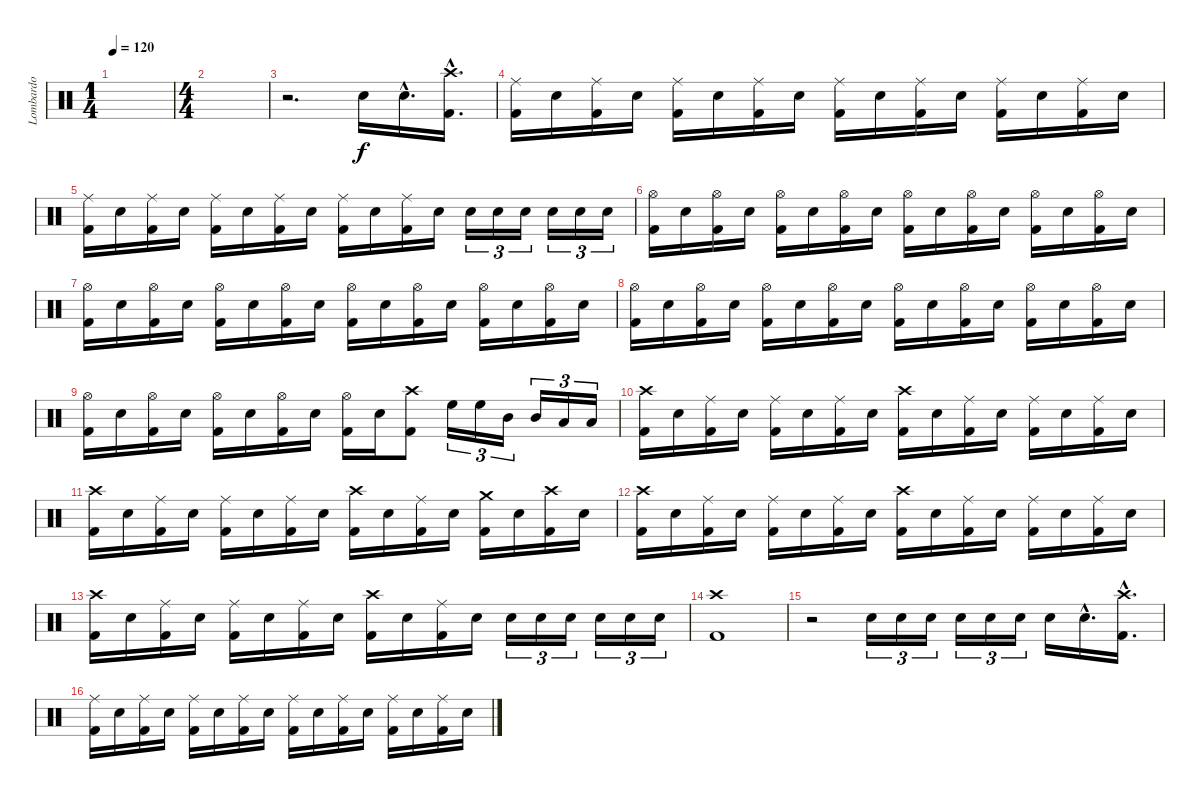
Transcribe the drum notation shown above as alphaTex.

\track ("Lombardo" "Lombardo") {instrument percussion}
\staff {score}
\articulation defaults
\ts (1 4)
\tempo 120
\clef neutral
\ks c
|
\ts (4 4)
|
r.2{d} "Electric Snare (hit)".16 "Electric Snare (hit)"{hac}.16{d} ("Crash high (hit)"{hac} "Kick (hit) 2"{hac}).16{d} |
("Ride (middle)" "Kick (hit) 2").16 "Electric Snare (hit)".16 ("Ride (middle)" "Kick (hit) 2").16 "Electric Snare (hit)".16 ("Ride (middle)" "Kick (hit) 2").16 "Electric Snare (hit)".16 ("Ride (middle)" "Kick (hit) 2").16 "Electric Snare (hit)".16 ("Ride (middle)" "Kick (hit) 2").16 "Electric Snare (hit)".16 ("Ride (middle)" "Kick (hit) 2").16 "Electric Snare (hit)".16 ("Ride (middle)" "Kick (hit) 2").16 "Electric Snare (hit)".16 ("Ride (middle)" "Kick (hit) 2").16 "Electric Snare (hit)".16 |
("Ride (middle)" "Kick (hit) 2").16 "Electric Snare (hit)".16 ("Ride (middle)" "Kick (hit) 2").16 "Electric Snare (hit)".16 ("Ride (middle)" "Kick (hit) 2").16 "Electric Snare (hit)".16 ("Ride (middle)" "Kick (hit) 2").16 "Electric Snare (hit)".16 ("Ride (middle)" "Kick (hit) 2").16 "Electric Snare (hit)".16 ("Ride (middle)" "Kick (hit) 2").16 "Electric Snare (hit)".16 "Electric Snare (hit)".16{tu (3 2)} "Electric Snare (hit)".16{tu (3 2)} "Electric Snare (hit)".16{tu (3 2)} "Electric Snare (hit)".16{tu (3 2)} "Electric Snare (hit)".16{tu (3 2)} "Electric Snare (hit)".16{tu (3 2)} |
("Hi-Hat (open)" "Kick (hit) 2").16 "Electric Snare (hit)".16 ("Hi-Hat (open)" "Kick (hit) 2").16 "Electric Snare (hit)".16 ("Hi-Hat (open)" "Kick (hit) 2").16 "Electric Snare (hit)".16 ("Hi-Hat (open)" "Kick (hit) 2").16 "Electric Snare (hit)".16 ("Hi-Hat (open)" "Kick (hit) 2").16 "Electric Snare (hit)".16 ("Hi-Hat (open)" "Kick (hit) 2").16 "Electric Snare (hit)".16 ("Hi-Hat (open)" "Kick (hit) 2").16 "Electric Snare (hit)".16 ("Hi-Hat (open)" "Kick (hit) 2").16 "Electric Snare (hit)".16 |
("Hi-Hat (open)" "Kick (hit) 2").16 "Electric Snare (hit)".16 ("Hi-Hat (open)" "Kick (hit) 2").16 "Electric Snare (hit)".16 ("Hi-Hat (open)" "Kick (hit) 2").16 "Electric Snare (hit)".16 ("Hi-Hat (open)" "Kick (hit) 2").16 "Electric Snare (hit)".16 ("Hi-Hat (open)" "Kick (hit) 2").16 "Electric Snare (hit)".16 ("Hi-Hat (open)" "Kick (hit) 2").16 "Electric Snare (hit)".16 ("Hi-Hat (open)" "Kick (hit) 2").16 "Electric Snare (hit)".16 ("Hi-Hat (open)" "Kick (hit) 2").16 "Electric Snare (hit)".16 |
("Hi-Hat (open)" "Kick (hit) 2").16 "Electric Snare (hit)".16 ("Hi-Hat (open)" "Kick (hit) 2").16 "Electric Snare (hit)".16 ("Hi-Hat (open)" "Kick (hit) 2").16 "Electric Snare (hit)".16 ("Hi-Hat (open)" "Kick (hit) 2").16 "Electric Snare (hit)".16 ("Hi-Hat (open)" "Kick (hit) 2").16 "Electric Snare (hit)".16 ("Hi-Hat (open)" "Kick (hit) 2").16 "Electric Snare (hit)".16 ("Hi-Hat (open)" "Kick (hit) 2").16 "Electric Snare (hit)".16 ("Hi-Hat (open)" "Kick (hit) 2").16 "Electric Snare (hit)".16 |
("Hi-Hat (open)" "Kick (hit) 2").16 "Electric Snare (hit)".16 ("Hi-Hat (open)" "Kick (hit) 2").16 "Electric Snare (hit)".16 ("Hi-Hat (open)" "Kick (hit) 2").16 "Electric Snare (hit)".16 ("Hi-Hat (open)" "Kick (hit) 2").16 "Electric Snare (hit)".16 ("Hi-Hat (open)" "Kick (hit) 2").16 "Electric Snare (hit)".16 ("Crash high (hit)" "Kick (hit) 2").8 "High Floor Tom (hit)".16{tu (3 2)} "High Floor Tom (hit)".16{tu (3 2)} "Mid Tom (hit)".16{tu (3 2)} "Mid Tom (hit)".16{tu (3 2)} "Low Tom (hit)".16{tu (3 2)} "Low Tom (hit)".16{tu (3 2)} |
("Crash high (hit)" "Kick (hit) 2").16 "Electric Snare (hit)".16 ("Ride (middle)" "Kick (hit) 2").16 "Electric Snare (hit)".16 ("Ride (middle)" "Kick (hit) 2").16 "Electric Snare (hit)".16 ("Ride (middle)" "Kick (hit) 2").16 "Electric Snare (hit)".16 ("Crash high (hit)" "Kick (hit) 2").16 "Electric Snare (hit)".16 ("Ride (middle)" "Kick (hit) 2").16 "Electric Snare (hit)".16 ("Ride (middle)" "Kick (hit) 2").16 "Electric Snare (hit)".16 ("Ride (middle)" "Kick (hit) 2").16 "Electric Snare (hit)".16 |
("Crash high (hit)" "Kick (hit) 2").16 "Electric Snare (hit)".16 ("Ride (middle)" "Kick (hit) 2").16 "Electric Snare (hit)".16 ("Ride (middle)" "Kick (hit) 2").16 "Electric Snare (hit)".16 ("Ride (middle)" "Kick (hit) 2").16 "Electric Snare (hit)".16 ("Crash high (hit)" "Kick (hit) 2").16 "Electric Snare (hit)".16 ("Ride (middle)" "Kick (hit) 2").16 "Electric Snare (hit)".16 ("Crash medium (hit)" "Kick (hit) 2").16 "Electric Snare (hit)".16 ("Crash high (hit)" "Kick (hit) 2").16 "Electric Snare (hit)".16 |
("Crash high (hit)" "Kick (hit) 2").16 "Electric Snare (hit)".16 ("Ride (middle)" "Kick (hit) 2").16 "Electric Snare (hit)".16 ("Ride (middle)" "Kick (hit) 2").16 "Electric Snare (hit)".16 ("Ride (middle)" "Kick (hit) 2").16 "Electric Snare (hit)".16 ("Crash high (hit)" "Kick (hit) 2").16 "Electric Snare (hit)".16 ("Ride (middle)" "Kick (hit) 2").16 "Electric Snare (hit)".16 ("Ride (middle)" "Kick (hit) 2").16 "Electric Snare (hit)".16 ("Ride (middle)" "Kick (hit) 2").16 "Electric Snare (hit)".16 |
("Crash high (hit)" "Kick (hit) 2").16 "Electric Snare (hit)".16 ("Ride (middle)" "Kick (hit) 2").16 "Electric Snare (hit)".16 ("Ride (middle)" "Kick (hit) 2").16 "Electric Snare (hit)".16 ("Ride (middle)" "Kick (hit) 2").16 "Electric Snare (hit)".16 ("Crash high (hit)" "Kick (hit) 2").16 "Electric Snare (hit)".16 ("Ride (middle)" "Kick (hit) 2").16 "Electric Snare (hit)".16 "Electric Snare (hit)".16{tu (3 2)} "Electric Snare (hit)".16{tu (3 2)} "Electric Snare (hit)".16{tu (3 2)} "Electric Snare (hit)".16{tu (3 2)} "Electric Snare (hit)".16{tu (3 2)} "Electric Snare (hit)".16{tu (3 2)} |
("Crash high (hit)" "Kick (hit) 2").1 |
r.2 "Electric Snare (hit)".16{tu (3 2)} "Electric Snare (hit)".16{tu (3 2)} "Electric Snare (hit)".16{tu (3 2)} "Electric Snare (hit)".16{tu (3 2)} "Electric Snare (hit)".16{tu (3 2)} "Electric Snare (hit)".16{tu (3 2)} "Electric Snare (hit)".16 "Electric Snare (hit)"{hac}.16{d} ("Crash high (hit)"{hac} "Kick (hit) 2"{hac}).16{d} |
("Ride (middle)" "Kick (hit) 2").16 "Electric Snare (hit)".16 ("Ride (middle)" "Kick (hit) 2").16 "Electric Snare (hit)".16 ("Ride (middle)" "Kick (hit) 2").16 "Electric Snare (hit)".16 ("Ride (middle)" "Kick (hit) 2").16 "Electric Snare (hit)".16 ("Ride (middle)" "Kick (hit) 2").16 "Electric Snare (hit)".16 ("Ride (middle)" "Kick (hit) 2").16 "Electric Snare (hit)".16 ("Ride (middle)" "Kick (hit) 2").16 "Electric Snare (hit)".16 ("Ride (middle)" "Kick (hit) 2").16 "Electric Snare (hit)".16
